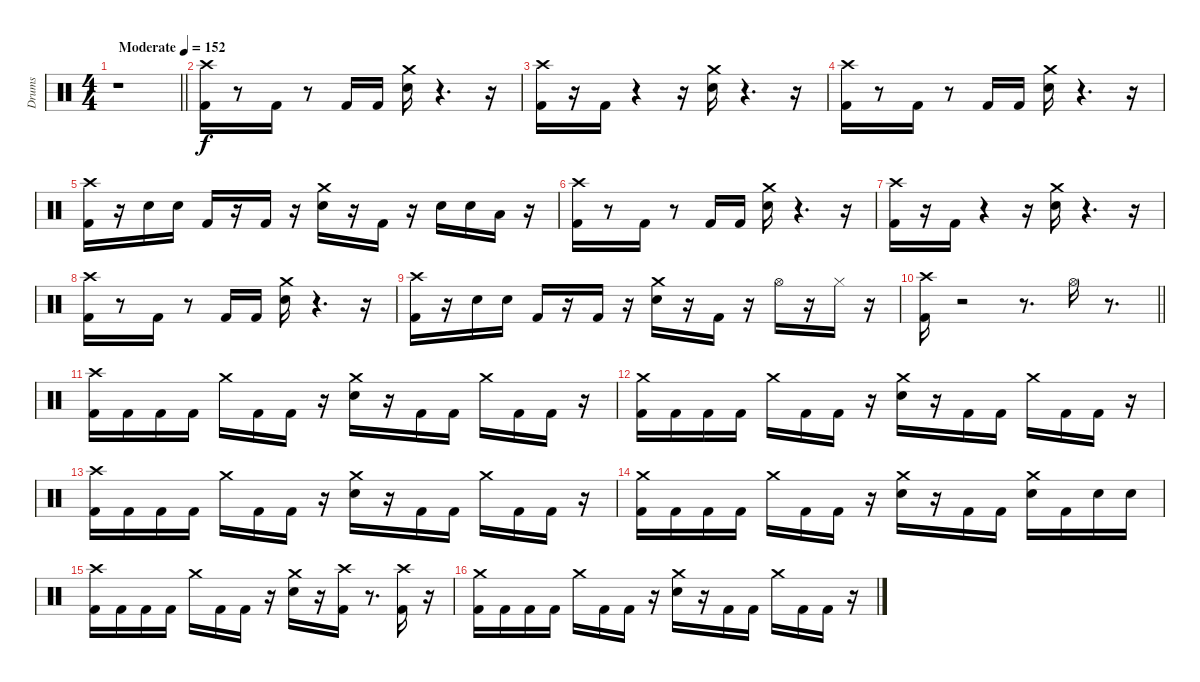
\track ("Drums" "Drums") {instrument percussion}
\staff {score}
\articulation defaults
\ts (4 4)
\tempo (152 "Moderate")
\clef neutral
\barLineRight lightlight
\ks c
r.1{dy f} |
\section ("" " ")
("Kick (hit) 2" "Crash high (hit)").16 r.8 "Kick (hit) 2".16 r.8 "Kick (hit) 2".16 "Kick (hit) 2".16 ("Snare (hit) 2" "Crash medium (hit)").16 r.4{d} r.16 |
("Kick (hit) 2" "Crash high (hit)").16 r.16 "Kick (hit) 2".16 r.4 r.16 ("Snare (hit) 2" "Crash medium (hit)").16 r.4{d} r.16 |
("Kick (hit) 2" "Crash high (hit)").16 r.8 "Kick (hit) 2".16 r.8 "Kick (hit) 2".16 "Kick (hit) 2".16 ("Snare (hit) 2" "Crash medium (hit)").16 r.4{d} r.16 |
("Kick (hit) 2" "Crash high (hit)").16 r.16 "Snare (hit) 2".16 "Snare (hit) 2".16 "Kick (hit) 2".16 r.16 "Kick (hit) 2".16 r.16 ("Snare (hit) 2" "Crash medium (hit)").16 r.16 "Kick (hit) 2".16 r.16 "Snare (hit) 2".16 "Snare (hit) 2".16 "Low Tom (hit)".16 r.16 |
("Kick (hit) 2" "Crash high (hit)").16 r.8 "Kick (hit) 2".16 r.8 "Kick (hit) 2".16 "Kick (hit) 2".16 ("Snare (hit) 2" "Crash medium (hit)").16 r.4{d} r.16 |
("Kick (hit) 2" "Crash high (hit)").16 r.16 "Kick (hit) 2".16 r.4 r.16 ("Snare (hit) 2" "Crash medium (hit)").16 r.4{d} r.16 |
("Kick (hit) 2" "Crash high (hit)").16 r.8 "Kick (hit) 2".16 r.8 "Kick (hit) 2".16 "Kick (hit) 2".16 ("Snare (hit) 2" "Crash medium (hit)").16 r.4{d} r.16 |
("Kick (hit) 2" "Crash high (hit)").16 r.16 "Snare (hit) 2".16 "Snare (hit) 2".16 "Kick (hit) 2".16 r.16 "Kick (hit) 2".16 r.16 ("Snare (hit) 2" "Crash medium (hit)").16 r.16 "Kick (hit) 2".16 r.16 "Hi-Hat (open)".16 r.16 "Hi-Hat (closed)".16 r.16 |
\barLineRight lightlight
("Kick (hit) 2" "Crash high (hit)").16 r.2 r.8{d} "Hi-Hat (open)".16 r.8{d} |
\section ("" " ")
("Kick (hit) 2" "Crash high (hit)").16 "Kick (hit) 2".16 "Kick (hit) 2".16 "Kick (hit) 2".16 "Crash medium (hit)".16 "Kick (hit) 2".16 "Kick (hit) 2".16 r.16 ("Snare (hit) 2" "Crash medium (hit)").16 r.16 "Kick (hit) 2".16 "Kick (hit) 2".16 "Crash medium (hit)".16 "Kick (hit) 2".16 "Kick (hit) 2".16 r.16 |
("Kick (hit) 2" "Crash medium (hit)").16 "Kick (hit) 2".16 "Kick (hit) 2".16 "Kick (hit) 2".16 "Crash medium (hit)".16 "Kick (hit) 2".16 "Kick (hit) 2".16 r.16 ("Snare (hit) 2" "Crash medium (hit)").16 r.16 "Kick (hit) 2".16 "Kick (hit) 2".16 "Crash medium (hit)".16 "Kick (hit) 2".16 "Kick (hit) 2".16 r.16 |
("Kick (hit) 2" "Crash high (hit)").16 "Kick (hit) 2".16 "Kick (hit) 2".16 "Kick (hit) 2".16 "Crash medium (hit)".16 "Kick (hit) 2".16 "Kick (hit) 2".16 r.16 ("Snare (hit) 2" "Crash medium (hit)").16 r.16 "Kick (hit) 2".16 "Kick (hit) 2".16 "Crash medium (hit)".16 "Kick (hit) 2".16 "Kick (hit) 2".16 r.16 |
("Kick (hit) 2" "Crash medium (hit)").16 "Kick (hit) 2".16 "Kick (hit) 2".16 "Kick (hit) 2".16 "Crash medium (hit)".16 "Kick (hit) 2".16 "Kick (hit) 2".16 r.16 ("Snare (hit) 2" "Crash medium (hit)").16 r.16 "Kick (hit) 2".16 "Kick (hit) 2".16 ("Snare (hit) 2" "Crash medium (hit)").16 "Kick (hit) 2".16 "Snare (hit) 2".16 "Snare (hit) 2".16 |
("Kick (hit) 2" "Crash high (hit)").16 "Kick (hit) 2".16 "Kick (hit) 2".16 "Kick (hit) 2".16 "Crash medium (hit)".16 "Kick (hit) 2".16 "Kick (hit) 2".16 r.16 ("Snare (hit) 2" "Crash medium (hit)").16 r.16 ("Kick (hit) 2" "Crash high (hit)").16 r.8{d} ("Kick (hit) 2" "Crash high (hit)").16 r.16 |
("Kick (hit) 2" "Crash medium (hit)").16 "Kick (hit) 2".16 "Kick (hit) 2".16 "Kick (hit) 2".16 "Crash medium (hit)".16 "Kick (hit) 2".16 "Kick (hit) 2".16 r.16 ("Snare (hit) 2" "Crash medium (hit)").16 r.16 "Kick (hit) 2".16 "Kick (hit) 2".16 "Crash medium (hit)".16 "Kick (hit) 2".16 "Kick (hit) 2".16 r.16
